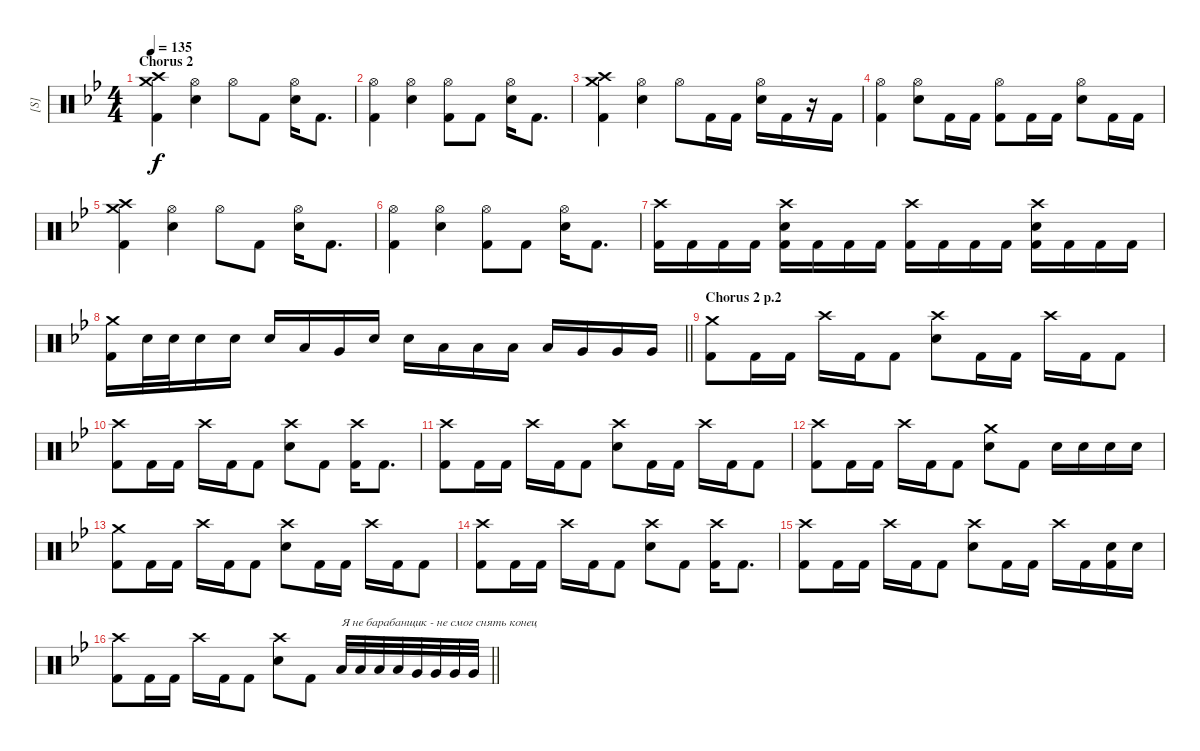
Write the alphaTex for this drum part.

\track ("[S]" "[S]") {instrument percussion}
\staff {score}
\articulation defaults
\ts (4 4)
\section ("" "Chorus 2")
\tempo 135
\clef neutral
\ks gminor
("Crash high (hit)" "Crash medium (hit)" "Kick (hit) 2").4{dy f} ("Hi-Hat (open)" "Electric Snare (hit)").4 "Hi-Hat (open)".8 "Kick (hit) 2".8 ("Hi-Hat (open)" "Electric Snare (hit)").16 "Kick (hit) 2".8{d} |
("Hi-Hat (open)" "Kick (hit) 2").4 ("Hi-Hat (open)" "Electric Snare (hit)").4 ("Hi-Hat (open)" "Kick (hit) 2").8 "Kick (hit) 2".8 ("Hi-Hat (open)" "Electric Snare (hit)").16 "Kick (hit) 2".8{d} |
("Crash high (hit)" "Crash medium (hit)" "Kick (hit) 2").4 ("Hi-Hat (open)" "Electric Snare (hit)").4 "Hi-Hat (open)".8 "Kick (hit) 2".16 "Kick (hit) 2".16 ("Hi-Hat (open)" "Electric Snare (hit)").16 "Kick (hit) 2".16 r.16 "Kick (hit) 2".16 |
("Hi-Hat (open)" "Kick (hit) 2").4 ("Hi-Hat (open)" "Electric Snare (hit)").8 "Kick (hit) 2".16 "Kick (hit) 2".16 ("Hi-Hat (open)" "Kick (hit) 2").8 "Kick (hit) 2".16 "Kick (hit) 2".16 ("Hi-Hat (open)" "Electric Snare (hit)").8 "Kick (hit) 2".16 "Kick (hit) 2".16 |
("Crash high (hit)" "Crash medium (hit)" "Kick (hit) 2").4 ("Hi-Hat (open)" "Electric Snare (hit)").4 "Hi-Hat (open)".8 "Kick (hit) 2".8 ("Hi-Hat (open)" "Electric Snare (hit)").16 "Kick (hit) 2".8{d} |
("Hi-Hat (open)" "Kick (hit) 2").4 ("Hi-Hat (open)" "Electric Snare (hit)").4 ("Hi-Hat (open)" "Kick (hit) 2").8 "Kick (hit) 2".8 ("Hi-Hat (open)" "Electric Snare (hit)").16 "Kick (hit) 2".8{d} |
("Crash high (hit)" "Kick (hit) 2").16 "Kick (hit) 2".16 "Kick (hit) 2".16 "Kick (hit) 2".16 ("Crash high (hit)" "Electric Snare (hit)" "Kick (hit) 2").16 "Kick (hit) 2".16 "Kick (hit) 2".16 "Kick (hit) 2".16 ("Crash high (hit)" "Kick (hit) 2").16 "Kick (hit) 2".16 "Kick (hit) 2".16 "Kick (hit) 2".16 ("Crash high (hit)" "Electric Snare (hit)" "Kick (hit) 2").16 "Kick (hit) 2".16 "Kick (hit) 2".16 "Kick (hit) 2".16 |
\barLineRight lightlight
("Crash medium (hit)" "Kick (hit) 2").16 "Electric Snare (hit)".32 "Electric Snare (hit)".32 "Electric Snare (hit)".16 "Electric Snare (hit)".16 "Electric Snare (hit)".16 "Low Tom (hit)".16 "Very Low Tom (hit)".16 "Electric Snare (hit)".16 "Electric Snare (hit)".16 "Low Tom (hit)".16 "Low Tom (hit)".16 "Low Tom (hit)".16 "Low Tom (hit)".16 "Very Low Tom (hit)".16 "Very Low Tom (hit)".16 "Very Low Tom (hit)".16 |
\section ("" "Chorus 2 p.2")
("Crash medium (hit)" "Kick (hit) 2").8 "Kick (hit) 2".16 "Kick (hit) 2".16 "Crash high (hit)".16 "Kick (hit) 2".16 "Kick (hit) 2".8 ("Crash high (hit)" "Electric Snare (hit)").8 "Kick (hit) 2".16 "Kick (hit) 2".16 "Crash high (hit)".16 "Kick (hit) 2".16 "Kick (hit) 2".8 |
("Crash high (hit)" "Kick (hit) 2").8 "Kick (hit) 2".16 "Kick (hit) 2".16 "Crash high (hit)".16 "Kick (hit) 2".16 "Kick (hit) 2".8 ("Crash high (hit)" "Electric Snare (hit)").8 "Kick (hit) 2".8 ("Crash high (hit)" "Kick (hit) 2").16 "Kick (hit) 2".8{d} |
("Crash high (hit)" "Kick (hit) 2").8 "Kick (hit) 2".16 "Kick (hit) 2".16 "Crash high (hit)".16 "Kick (hit) 2".16 "Kick (hit) 2".8 ("Crash high (hit)" "Electric Snare (hit)").8 "Kick (hit) 2".16 "Kick (hit) 2".16 "Crash high (hit)".16 "Kick (hit) 2".16 "Kick (hit) 2".8 |
("Crash high (hit)" "Kick (hit) 2").8 "Kick (hit) 2".16 "Kick (hit) 2".16 "Crash high (hit)".16 "Kick (hit) 2".16 "Kick (hit) 2".8 ("Crash medium (hit)" "Electric Snare (hit)").8 "Kick (hit) 2".8 "Electric Snare (hit)".16 "Electric Snare (hit)".16 "Electric Snare (hit)".16 "Electric Snare (hit)".16 |
("Crash medium (hit)" "Kick (hit) 2").8 "Kick (hit) 2".16 "Kick (hit) 2".16 "Crash high (hit)".16 "Kick (hit) 2".16 "Kick (hit) 2".8 ("Crash high (hit)" "Electric Snare (hit)").8 "Kick (hit) 2".16 "Kick (hit) 2".16 "Crash high (hit)".16 "Kick (hit) 2".16 "Kick (hit) 2".8 |
("Crash high (hit)" "Kick (hit) 2").8 "Kick (hit) 2".16 "Kick (hit) 2".16 "Crash high (hit)".16 "Kick (hit) 2".16 "Kick (hit) 2".8 ("Crash high (hit)" "Electric Snare (hit)").8 "Kick (hit) 2".8 ("Crash high (hit)" "Kick (hit) 2").16 "Kick (hit) 2".8{d} |
("Crash high (hit)" "Kick (hit) 2").8 "Kick (hit) 2".16 "Kick (hit) 2".16 "Crash high (hit)".16 "Kick (hit) 2".16 "Kick (hit) 2".8 ("Crash high (hit)" "Electric Snare (hit)").8 "Kick (hit) 2".16 "Kick (hit) 2".16 "Crash high (hit)".16 "Kick (hit) 2".16 ("Electric Snare (hit)" "Kick (hit) 2").16 "Electric Snare (hit)".16 |
\barLineRight lightlight
("Crash high (hit)" "Kick (hit) 2").8 "Kick (hit) 2".16 "Kick (hit) 2".16 "Crash high (hit)".16 "Kick (hit) 2".16 "Kick (hit) 2".8 ("Crash high (hit)" "Electric Snare (hit)").8 "Kick (hit) 2".8 "Low Tom (hit)".32{txt "Я не барабанщик - не смог снять конец"} "Low Tom (hit)".32 "Low Tom (hit)".32 "Low Tom (hit)".32 "Very Low Tom (hit)".32 "Very Low Tom (hit)".32 "Very Low Tom (hit)".32 "Very Low Tom (hit)".32
